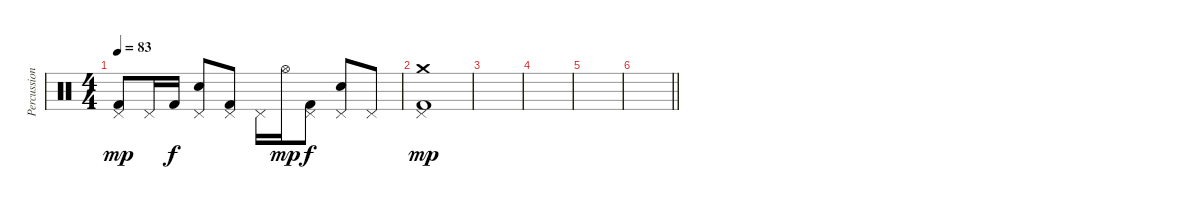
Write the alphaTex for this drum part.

\track ("Percussion" "Percussion") {instrument percussion}
\staff {score}
\articulation defaults
\ts (4 4)
\tempo 83
\clef neutral
\ks c
("Pedal Hi-Hat (hit)" "Kick (hit) 2").8{dy mp} "Pedal Hi-Hat (hit)".16 "Kick (hit) 2".16{dy f} ("Pedal Hi-Hat (hit)" "Electric Snare (hit)").8 ("Pedal Hi-Hat (hit)" "Kick (hit) 2").8 "Pedal Hi-Hat (hit)".16 "Hi-Hat (open)".16{dy mp} ("Pedal Hi-Hat (hit)" "Kick (hit) 2").8{dy f} ("Pedal Hi-Hat (hit)" "Electric Snare (hit)").8 "Pedal Hi-Hat (hit)".8 |
("Pedal Hi-Hat (hit)" "Kick (hit) 2" "Crash medium (hit)").1{dy mp} |
|
|
|
\barLineRight lightlight
